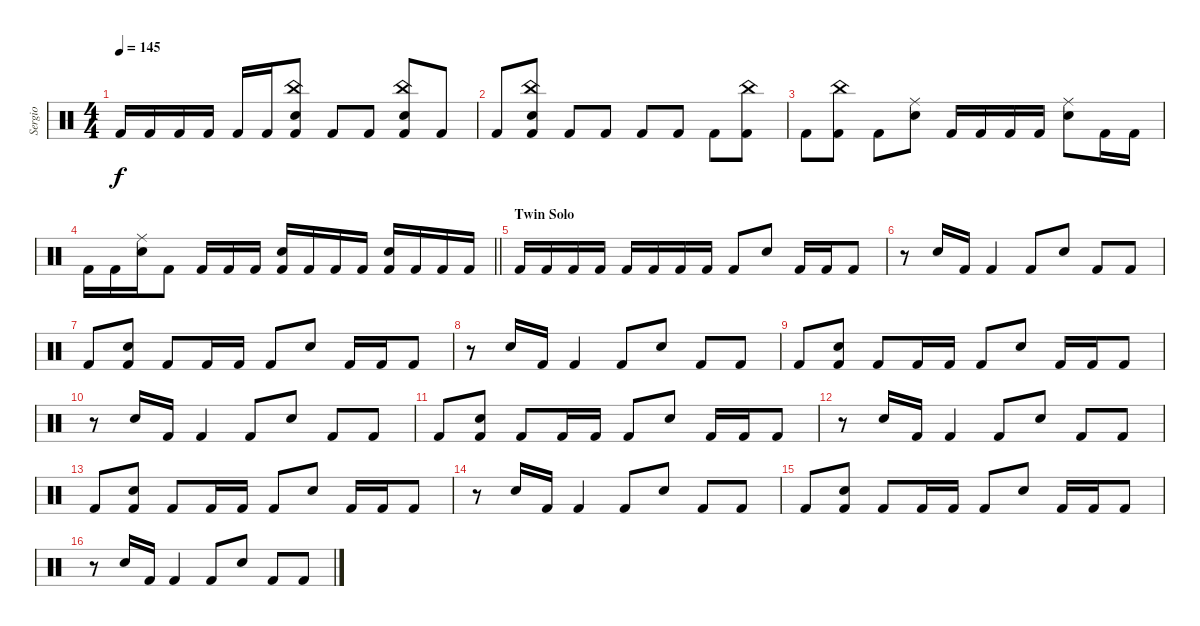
\track ("Sergio" "Sergio") {instrument percussion}
\staff {score}
\articulation defaults
\ts (4 4)
\tempo 145
\clef neutral
\ks c "Kick (hit) 2".16{dy f} "Kick (hit) 2".16 "Kick (hit) 2".16 "Kick (hit) 2".16 "Kick (hit) 2".16 "Kick (hit) 2".16
("China (hit)" "Electric Snare (hit)" "Kick (hit) 2").8 "Kick (hit) 2".8 "Kick (hit) 2".8 ("China (hit)" "Electric Snare (hit)" "Kick (hit) 2").8 "Kick (hit) 2".8 |
"Kick (hit) 2".8 ("China (hit)" "Electric Snare (hit)" "Kick (hit) 2").8 "Kick (hit) 2".8 "Kick (hit) 2".8 "Kick (hit) 2".8 "Kick (hit) 2".8 "Kick (hit) 2".8 ("China (hit)" "Kick (hit) 2").8 |
"Kick (hit) 2".8 ("China (hit)" "Kick (hit) 2").8 "Kick (hit) 2".8 ("Ride (middle)" "Electric Snare (hit)").8 "Kick (hit) 2".16 "Kick (hit) 2".16 "Kick (hit) 2".16 "Kick (hit) 2".16 ("Ride (middle)" "Electric Snare (hit)").8 "Kick (hit) 2".16 "Kick (hit) 2".16 |
\barLineRight lightlight "Kick (hit) 2".16 "Kick (hit) 2".16
("Ride (middle)" "Electric Snare (hit)").16 "Kick (hit) 2".8 "Kick (hit) 2".16 "Kick (hit) 2".16 "Kick (hit) 2".16 ("Electric Snare (hit)" "Kick (hit) 2").16 "Kick (hit) 2".16 "Kick (hit) 2".16 "Kick (hit) 2".16 ("Electric Snare (hit)" "Kick (hit) 2").16 "Kick (hit) 2".16 "Kick (hit) 2".16 "Kick (hit) 2".16 |
\section ("" "Twin Solo")
"Kick (hit) 2".16 "Kick (hit) 2".16 "Kick (hit) 2".16 "Kick (hit) 2".16 "Kick (hit) 2".16 "Kick (hit) 2".16 "Kick (hit) 2".16 "Kick (hit) 2".16 "Kick (hit) 2".8 "Electric Snare (hit)".8 "Kick (hit) 2".16 "Kick (hit) 2".16 "Kick (hit) 2".8 |
r.8 "Electric Snare (hit)".16 "Kick (hit) 2".16 "Kick (hit) 2".4 "Kick (hit) 2".8 "Electric Snare (hit)".8 "Kick (hit) 2".8 "Kick (hit) 2".8 |
"Kick (hit) 2".8 ("Electric Snare (hit)" "Kick (hit) 2").8 "Kick (hit) 2".8 "Kick (hit) 2".16 "Kick (hit) 2".16 "Kick (hit) 2".8 "Electric Snare (hit)".8 "Kick (hit) 2".16 "Kick (hit) 2".16 "Kick (hit) 2".8 |
r.8 "Electric Snare (hit)".16 "Kick (hit) 2".16 "Kick (hit) 2".4 "Kick (hit) 2".8 "Electric Snare (hit)".8 "Kick (hit) 2".8 "Kick (hit) 2".8 |
"Kick (hit) 2".8 ("Electric Snare (hit)" "Kick (hit) 2").8 "Kick (hit) 2".8 "Kick (hit) 2".16 "Kick (hit) 2".16 "Kick (hit) 2".8 "Electric Snare (hit)".8 "Kick (hit) 2".16 "Kick (hit) 2".16 "Kick (hit) 2".8 |
r.8 "Electric Snare (hit)".16 "Kick (hit) 2".16 "Kick (hit) 2".4 "Kick (hit) 2".8 "Electric Snare (hit)".8 "Kick (hit) 2".8 "Kick (hit) 2".8 |
"Kick (hit) 2".8 ("Electric Snare (hit)" "Kick (hit) 2").8 "Kick (hit) 2".8 "Kick (hit) 2".16 "Kick (hit) 2".16 "Kick (hit) 2".8 "Electric Snare (hit)".8 "Kick (hit) 2".16 "Kick (hit) 2".16 "Kick (hit) 2".8 |
r.8 "Electric Snare (hit)".16 "Kick (hit) 2".16 "Kick (hit) 2".4 "Kick (hit) 2".8 "Electric Snare (hit)".8 "Kick (hit) 2".8 "Kick (hit) 2".8 |
"Kick (hit) 2".8 ("Electric Snare (hit)" "Kick (hit) 2").8 "Kick (hit) 2".8 "Kick (hit) 2".16 "Kick (hit) 2".16 "Kick (hit) 2".8 "Electric Snare (hit)".8 "Kick (hit) 2".16 "Kick (hit) 2".16 "Kick (hit) 2".8 |
r.8 "Electric Snare (hit)".16 "Kick (hit) 2".16 "Kick (hit) 2".4 "Kick (hit) 2".8 "Electric Snare (hit)".8 "Kick (hit) 2".8 "Kick (hit) 2".8 |
"Kick (hit) 2".8 ("Electric Snare (hit)" "Kick (hit) 2").8 "Kick (hit) 2".8 "Kick (hit) 2".16 "Kick (hit) 2".16 "Kick (hit) 2".8 "Electric Snare (hit)".8 "Kick (hit) 2".16 "Kick (hit) 2".16 "Kick (hit) 2".8 |
r.8 "Electric Snare (hit)".16 "Kick (hit) 2".16 "Kick (hit) 2".4 "Kick (hit) 2".8 "Electric Snare (hit)".8 "Kick (hit) 2".8 "Kick (hit) 2".8
